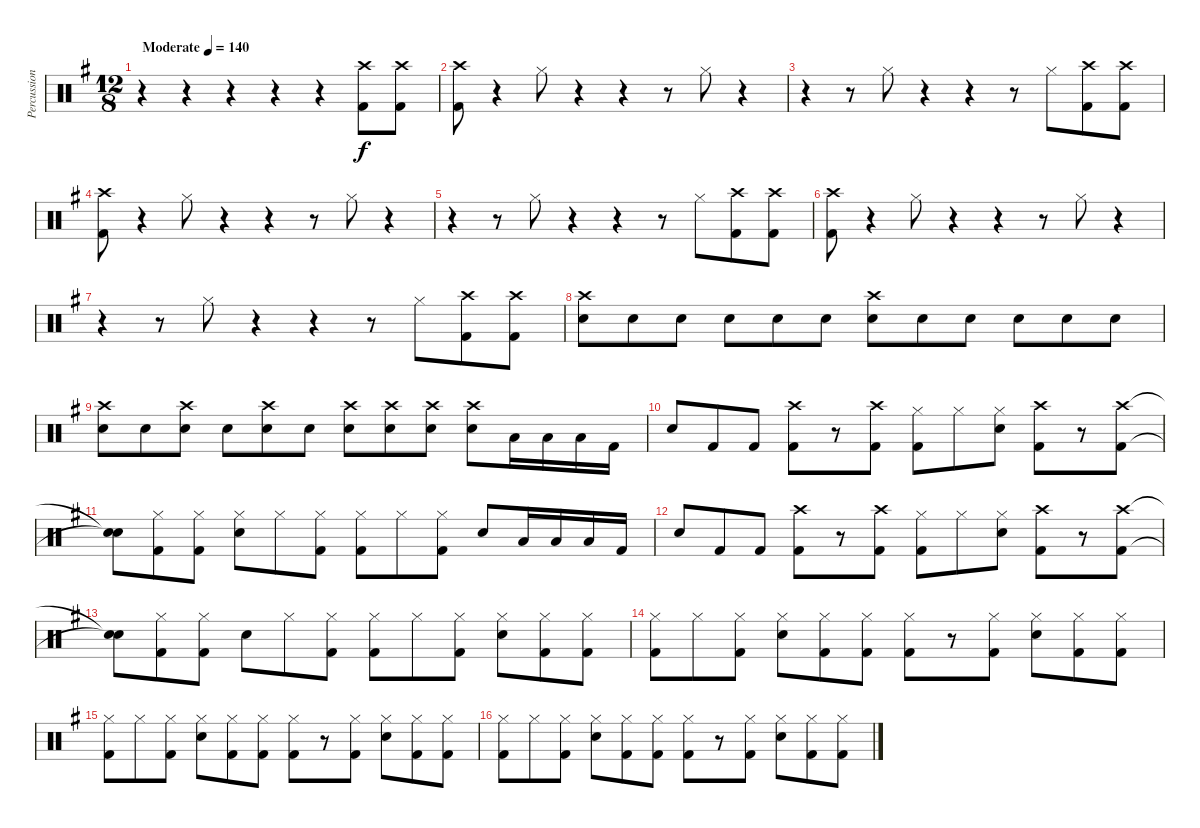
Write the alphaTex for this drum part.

\track ("Percussion" "Percussion") {instrument percussion}
\staff {score}
\articulation defaults
\ts (12 8)
\tempo (140 "Moderate")
\clef neutral
\ks g
r.4{dy f} r.4 r.4 r.4 r.4 ("Crash high (hit)" "Kick (hit) 2").8 ("Crash high (hit)" "Kick (hit) 2").8 |
("Crash high (hit)" "Kick (hit) 2").8 r.4 "Hi-Hat (closed)".8 r.4 r.4 r.8 "Hi-Hat (closed)".8 r.4 |
r.4 r.8 "Hi-Hat (closed)".8 r.4 r.4 r.8 "Hi-Hat (closed)".8 ("Crash high (hit)" "Kick (hit) 2").8 ("Crash high (hit)" "Kick (hit) 2").8 |
("Crash high (hit)" "Kick (hit) 2").8 r.4 "Hi-Hat (closed)".8 r.4 r.4 r.8 "Hi-Hat (closed)".8 r.4 |
r.4 r.8 "Hi-Hat (closed)".8 r.4 r.4 r.8 "Hi-Hat (closed)".8 ("Crash high (hit)" "Kick (hit) 2").8 ("Crash high (hit)" "Kick (hit) 2").8 |
("Crash high (hit)" "Kick (hit) 2").8 r.4 "Hi-Hat (closed)".8 r.4 r.4 r.8 "Hi-Hat (closed)".8 r.4 |
r.4 r.8 "Hi-Hat (closed)".8 r.4 r.4 r.8 "Hi-Hat (closed)".8 ("Crash high (hit)" "Kick (hit) 2").8 ("Crash high (hit)" "Kick (hit) 2").8 |
("Crash high (hit)" "Snare (hit) 2").8 "Snare (hit) 2".8 "Snare (hit) 2".8 "Snare (hit) 2".8 "Snare (hit) 2".8 "Snare (hit) 2".8 ("Crash high (hit)" "Snare (hit) 2").8 "Snare (hit) 2".8 "Snare (hit) 2".8 "Snare (hit) 2".8 "Snare (hit) 2".8 "Snare (hit) 2".8 |
("Crash high (hit)" "Snare (hit) 2").8 "Snare (hit) 2".8 ("Crash high (hit)" "Snare (hit) 2").8 "Snare (hit) 2".8 ("Crash high (hit)" "Snare (hit) 2").8 "Snare (hit) 2".8 ("Crash high (hit)" "Snare (hit) 2").8 ("Crash high (hit)" "Snare (hit) 2").8 ("Crash high (hit)" "Snare (hit) 2").8 ("Crash high (hit)" "Snare (hit) 2").8 "Low Floor Tom (hit)".16 "Low Floor Tom (hit)".16 "Low Floor Tom (hit)".16 "Kick (hit) 2".16 |
"Snare (hit) 2".8 "Kick (hit) 2".8 "Kick (hit) 2".8 ("Crash high (hit)" "Kick (hit) 2").8 r.8 ("Crash high (hit)" "Kick (hit) 2").8 ("Hi-Hat (closed)" "Kick (hit) 2").8 "Hi-Hat (closed)".8 ("Hi-Hat (closed)" "Snare (hit) 2").8 ("Crash high (hit)" "Kick (hit) 2").8 r.8 ("Crash high (hit)" "Kick (hit) 2").8 |
("Snare (hit)"{t} "Snare (hit)"{t}).8 ("Hi-Hat (closed)" "Kick (hit) 2").8 ("Hi-Hat (closed)" "Kick (hit) 2").8 ("Hi-Hat (closed)" "Snare (hit) 2").8 "Hi-Hat (closed)".8 ("Hi-Hat (closed)" "Kick (hit) 2").8 ("Hi-Hat (closed)" "Kick (hit) 2").8 "Hi-Hat (closed)".8 ("Hi-Hat (closed)" "Kick (hit) 2").8 "Snare (hit) 2".8 "Low Floor Tom (hit)".16 "Low Floor Tom (hit)".16 "Low Floor Tom (hit)".16 "Kick (hit) 2".16 |
"Snare (hit) 2".8 "Kick (hit) 2".8 "Kick (hit) 2".8 ("Crash high (hit)" "Kick (hit) 2").8 r.8 ("Crash high (hit)" "Kick (hit) 2").8 ("Hi-Hat (closed)" "Kick (hit) 2").8 "Hi-Hat (closed)".8 ("Hi-Hat (closed)" "Snare (hit) 2").8 ("Crash high (hit)" "Kick (hit) 2").8 r.8 ("Crash high (hit)" "Kick (hit) 2").8 |
("Snare (hit)"{t} "Snare (hit)"{t}).8 ("Hi-Hat (closed)" "Kick (hit) 2").8 ("Hi-Hat (closed)" "Kick (hit) 2").8 "Snare (hit) 2".8 "Hi-Hat (closed)".8 ("Hi-Hat (closed)" "Kick (hit) 2").8 ("Hi-Hat (closed)" "Kick (hit) 2").8 "Hi-Hat (closed)".8 ("Hi-Hat (closed)" "Kick (hit) 2").8 ("Hi-Hat (closed)" "Snare (hit) 2").8 ("Hi-Hat (closed)" "Kick (hit) 2").8 ("Hi-Hat (closed)" "Kick (hit) 2").8 |
("Hi-Hat (closed)" "Kick (hit) 2").8 "Hi-Hat (closed)".8 ("Hi-Hat (closed)" "Kick (hit) 2").8 ("Hi-Hat (closed)" "Snare (hit) 2").8 ("Hi-Hat (closed)" "Kick (hit) 2").8 ("Hi-Hat (closed)" "Kick (hit) 2").8 ("Hi-Hat (closed)" "Kick (hit) 2").8 r.8 ("Hi-Hat (closed)" "Kick (hit) 2").8 ("Hi-Hat (closed)" "Snare (hit) 2").8 ("Hi-Hat (closed)" "Kick (hit) 2").8 ("Hi-Hat (closed)" "Kick (hit) 2").8 |
("Hi-Hat (closed)" "Kick (hit) 2").8 "Hi-Hat (closed)".8 ("Hi-Hat (closed)" "Kick (hit) 2").8 ("Hi-Hat (closed)" "Snare (hit) 2").8 ("Hi-Hat (closed)" "Kick (hit) 2").8 ("Hi-Hat (closed)" "Kick (hit) 2").8 ("Hi-Hat (closed)" "Kick (hit) 2").8 r.8 ("Hi-Hat (closed)" "Kick (hit) 2").8 ("Hi-Hat (closed)" "Snare (hit) 2").8 ("Hi-Hat (closed)" "Kick (hit) 2").8 ("Hi-Hat (closed)" "Kick (hit) 2").8 |
("Hi-Hat (closed)" "Kick (hit) 2").8 "Hi-Hat (closed)".8 ("Hi-Hat (closed)" "Kick (hit) 2").8 ("Hi-Hat (closed)" "Snare (hit) 2").8 ("Hi-Hat (closed)" "Kick (hit) 2").8 ("Hi-Hat (closed)" "Kick (hit) 2").8 ("Hi-Hat (closed)" "Kick (hit) 2").8 r.8 ("Hi-Hat (closed)" "Kick (hit) 2").8 ("Hi-Hat (closed)" "Snare (hit) 2").8 ("Hi-Hat (closed)" "Kick (hit) 2").8 ("Hi-Hat (closed)" "Kick (hit) 2").8
